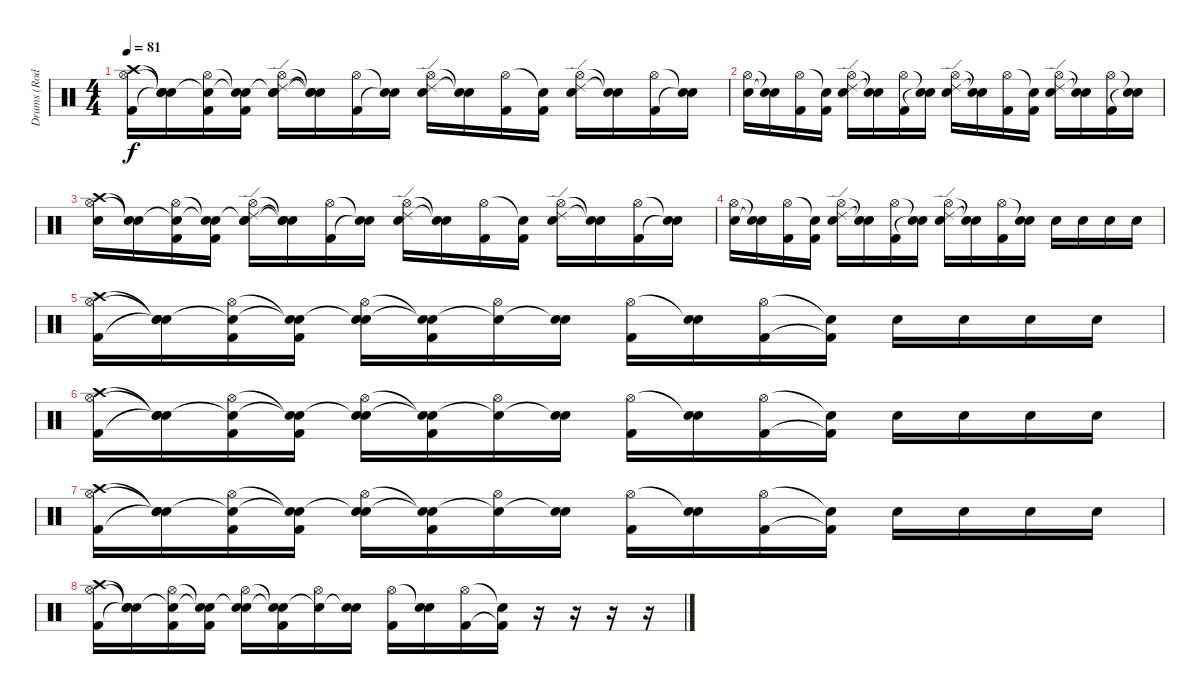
\track ("Drums (Rod Bourdon)" "Drums (Rod") {instrument percussion}
\staff {score}
\articulation defaults
\ts (4 4)
\tempo 81
\clef neutral
\ks c
("Crash high (hit)" "Hi-Hat (open)" "Kick (hit) 2").16{dy f} ("Snare (hit)"{t} "Snare (hit)"{t} "Snare (hit)"{t}).16 ("Snare (hit)"{t} "Hi-Hat (open)" "Kick (hit) 2").16 ("Snare (hit)"{t} "Snare (hit)"{t} "Kick (hit) 2").16 ("Snare (hit)"{t} "Ride (edge) 2" "Hi-Hat (open)" "Electric Snare (hit)").16 ("Snare (hit)"{t} "Snare (hit)"{t} "Snare (hit)"{t}).16 ("Hi-Hat (open)" "Kick (hit) 2").16 ("Snare (hit)"{t} "Snare (hit)"{t}).16 ("Ride (edge) 2" "Hi-Hat (open)" "Electric Snare (hit)").16 ("Snare (hit)"{t} "Snare (hit)"{t}).16 ("Hi-Hat (open)" "Kick (hit) 2").16 ("Snare (hit)"{t} "Kick (hit) 2").16 ("Ride (edge) 2" "Hi-Hat (open)" "Electric Snare (hit)").16 ("Snare (hit)"{t} "Snare (hit)"{t}).16 ("Hi-Hat (open)" "Kick (hit) 2").16 ("Snare (hit)"{t} "Snare (hit)"{t}).16 |
("Hi-Hat (open)" "Electric Snare (hit)").16 ("Snare (hit)"{t} "Snare (hit)"{t}).16 ("Hi-Hat (open)" "Kick (hit) 2").16 ("Snare (hit)"{t} "Kick (hit) 2").16 ("Ride (edge) 2" "Hi-Hat (open)" "Electric Snare (hit)").16 ("Snare (hit)"{t} "Snare (hit)"{t}).16 ("Hi-Hat (open)" "Kick (hit) 2").16 ("Snare (hit)"{t} "Snare (hit)"{t}).16 ("Ride (edge) 2" "Hi-Hat (open)" "Electric Snare (hit)").16 ("Snare (hit)"{t} "Snare (hit)"{t}).16 ("Hi-Hat (open)" "Kick (hit) 2").16 ("Snare (hit)"{t} "Kick (hit) 2").16 ("Ride (edge) 2" "Hi-Hat (open)" "Electric Snare (hit)").16 ("Snare (hit)"{t} "Snare (hit)"{t}).16 ("Hi-Hat (open)" "Kick (hit) 2").16 ("Snare (hit)"{t} "Snare (hit)"{t}).16 |
("Crash high (hit)" "Hi-Hat (open)" "Electric Snare (hit)").16 ("Snare (hit)"{t} "Snare (hit)"{t}).16 ("Snare (hit)"{t} "Hi-Hat (open)" "Kick (hit) 2").16 ("Snare (hit)"{t} "Snare (hit)"{t} "Kick (hit) 2").16 ("Snare (hit)"{t} "Ride (edge) 2" "Hi-Hat (open)" "Electric Snare (hit)").16 ("Snare (hit)"{t} "Snare (hit)"{t} "Snare (hit)"{t}).16 ("Hi-Hat (open)" "Kick (hit) 2").16 ("Snare (hit)"{t} "Snare (hit)"{t}).16 ("Ride (edge) 2" "Hi-Hat (open)" "Electric Snare (hit)").16 ("Snare (hit)"{t} "Snare (hit)"{t}).16 ("Hi-Hat (open)" "Kick (hit) 2").16 ("Snare (hit)"{t} "Kick (hit) 2").16 ("Ride (edge) 2" "Hi-Hat (open)" "Electric Snare (hit)").16 ("Snare (hit)"{t} "Snare (hit)"{t}).16 ("Hi-Hat (open)" "Kick (hit) 2").16 ("Snare (hit)"{t} "Snare (hit)"{t}).16 |
("Hi-Hat (open)" "Electric Snare (hit)").16 ("Snare (hit)"{t} "Snare (hit)"{t}).16 ("Hi-Hat (open)" "Kick (hit) 2").16 ("Snare (hit)"{t} "Kick (hit) 2").16 ("Ride (edge) 2" "Hi-Hat (open)" "Electric Snare (hit)").16 ("Snare (hit)"{t} "Snare (hit)"{t}).16 ("Hi-Hat (open)" "Kick (hit) 2").16 ("Snare (hit)"{t} "Snare (hit)"{t}).16 ("Ride (edge) 2" "Hi-Hat (open)" "Electric Snare (hit)").16 ("Snare (hit)"{t} "Snare (hit)"{t}).16 ("Hi-Hat (open)" "Kick (hit) 2").16 ("Snare (hit)"{t} "Electric Snare (hit)").16 "Electric Snare (hit)".16 "Electric Snare (hit)".16 "Electric Snare (hit)".16 "Electric Snare (hit)".16 |
("Crash high (hit)" "Hi-Hat (open)" "Kick (hit) 2").16 ("Snare (hit)"{t} "Snare (hit)"{t} "Snare (hit)"{t}).16 ("Snare (hit)"{t} "Hi-Hat (open)" "Kick (hit) 2").16 ("Snare (hit)"{t} "Snare (hit)"{t} "Kick (hit) 2").16 ("Snare (hit)"{t} "Hi-Hat (open)" "Electric Snare (hit)").16 ("Snare (hit)"{t} "Snare (hit)"{t} "Kick (hit) 2").16 ("Snare (hit)"{t} "Hi-Hat (open)").16 ("Snare (hit)"{t} "Electric Snare (hit)").16 ("Hi-Hat (open)" "Kick (hit) 2").16 ("Snare (hit)"{t} "Electric Snare (hit)").16 ("Hi-Hat (open)" "Kick (hit) 2").16 ("Snare (hit)"{t} "Kick (hit) 2"{t}).16 "Electric Snare (hit)".16 "Electric Snare (hit)".16 "Electric Snare (hit)".16 "Electric Snare (hit)".16 |
("Crash high (hit)" "Hi-Hat (open)" "Kick (hit) 2").16 ("Snare (hit)"{t} "Snare (hit)"{t} "Snare (hit)"{t}).16 ("Snare (hit)"{t} "Hi-Hat (open)" "Kick (hit) 2").16 ("Snare (hit)"{t} "Snare (hit)"{t} "Kick (hit) 2").16 ("Snare (hit)"{t} "Hi-Hat (open)" "Electric Snare (hit)").16 ("Snare (hit)"{t} "Snare (hit)"{t} "Kick (hit) 2").16 ("Snare (hit)"{t} "Hi-Hat (open)").16 ("Snare (hit)"{t} "Electric Snare (hit)").16 ("Hi-Hat (open)" "Kick (hit) 2").16 ("Snare (hit)"{t} "Electric Snare (hit)").16 ("Hi-Hat (open)" "Kick (hit) 2").16 ("Snare (hit)"{t} "Kick (hit) 2"{t}).16 "Electric Snare (hit)".16 "Electric Snare (hit)".16 "Electric Snare (hit)".16 "Electric Snare (hit)".16 |
("Crash high (hit)" "Hi-Hat (open)" "Kick (hit) 2").16 ("Snare (hit)"{t} "Snare (hit)"{t} "Snare (hit)"{t}).16 ("Snare (hit)"{t} "Hi-Hat (open)" "Kick (hit) 2").16 ("Snare (hit)"{t} "Snare (hit)"{t} "Kick (hit) 2").16 ("Snare (hit)"{t} "Hi-Hat (open)" "Electric Snare (hit)").16 ("Snare (hit)"{t} "Snare (hit)"{t} "Kick (hit) 2").16 ("Snare (hit)"{t} "Hi-Hat (open)").16 ("Snare (hit)"{t} "Electric Snare (hit)").16 ("Hi-Hat (open)" "Kick (hit) 2").16 ("Snare (hit)"{t} "Electric Snare (hit)").16 ("Hi-Hat (open)" "Kick (hit) 2").16 ("Snare (hit)"{t} "Kick (hit) 2"{t}).16 "Electric Snare (hit)".16 "Electric Snare (hit)".16 "Electric Snare (hit)".16 "Electric Snare (hit)".16 |
("Crash high (hit)" "Hi-Hat (open)" "Kick (hit) 2").16 ("Snare (hit)"{t} "Snare (hit)"{t} "Snare (hit)"{t}).16 ("Snare (hit)"{t} "Hi-Hat (open)" "Kick (hit) 2").16 ("Snare (hit)"{t} "Snare (hit)"{t} "Kick (hit) 2").16 ("Snare (hit)"{t} "Hi-Hat (open)" "Electric Snare (hit)").16 ("Snare (hit)"{t} "Snare (hit)"{t} "Kick (hit) 2").16 ("Snare (hit)"{t} "Hi-Hat (open)").16 ("Snare (hit)"{t} "Electric Snare (hit)").16 ("Hi-Hat (open)" "Kick (hit) 2").16 ("Snare (hit)"{t} "Electric Snare (hit)").16 ("Hi-Hat (open)" "Kick (hit) 2").16 ("Snare (hit)"{t} "Kick (hit) 2"{t}).16 r.16 r.16 r.16 r.16
